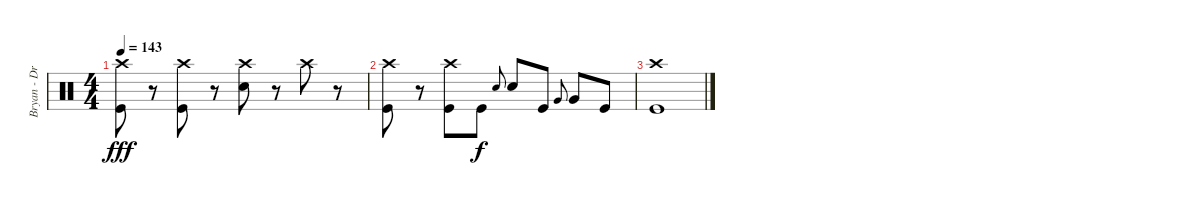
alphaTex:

\track ("Bryan - Drums" "Bryan - Dr") {instrument percussion}
\staff {score}
\articulation defaults
\ts (4 4)
\tempo 143
\clef neutral
\ks c
("Crash high (hit)" "Kick (hit)").8{dy fff} r.8 ("Crash high (hit)" "Kick (hit)").8 r.8 ("Crash high (hit)" "Snare (hit) 2").8 r.8 "Crash high (hit)".8 r.8 |
("Crash high (hit)" "Kick (hit)").8 r.8 ("Crash high (hit)" "Kick (hit)").8 "Kick (hit)".8{dy f} "Snare (hit) 2".8{gr onbeat} "Snare (hit) 2".8 "Kick (hit)".8 "Very Low Tom (hit)".8{gr onbeat} "Very Low Tom (hit)".8 "Kick (hit)".8 |
("Crash high (hit)" "Kick (hit)").1
